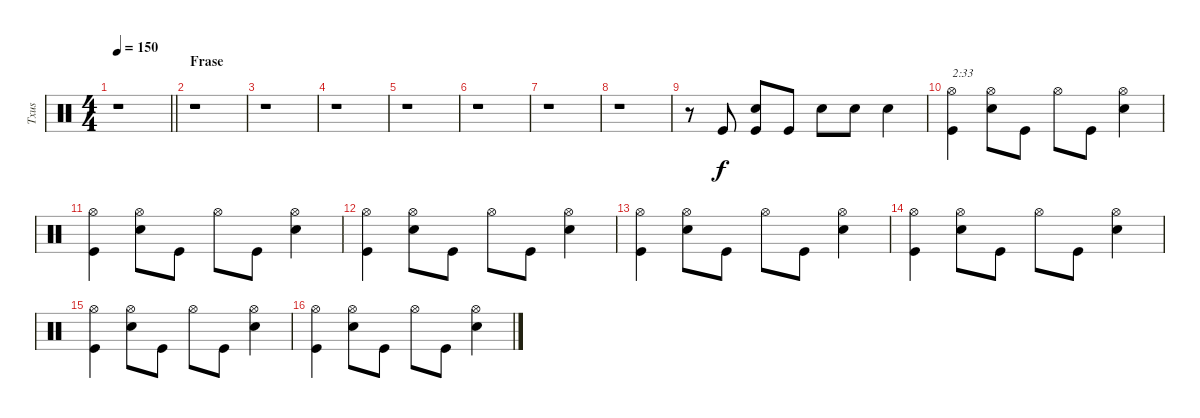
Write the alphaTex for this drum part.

\track ("Txus" "Txus") {instrument percussion}
\staff {score}
\articulation defaults
\ts (4 4)
\tempo 150
\clef neutral
\barLineRight lightlight
\ks c
r.1{dy f} |
\section ("" "Frase")
r.1 |
r.1 |
r.1 |
r.1 |
r.1 |
r.1 |
r.1 |
r.8 "Kick (hit)".8 ("Kick (hit)" "Snare (hit) 2").8 "Kick (hit)".8 "Snare (hit) 2".8 "Snare (hit) 2".8 "Snare (hit) 2".4 |
("Kick (hit)" "Hi-Hat (open)").4{txt "2:33"} ("Snare (hit) 2" "Hi-Hat (open)").8 "Kick (hit)".8 "Hi-Hat (open)".8 "Kick (hit)".8 ("Snare (hit) 2" "Hi-Hat (open)").4 |
("Kick (hit)" "Hi-Hat (open)").4 ("Snare (hit) 2" "Hi-Hat (open)").8 "Kick (hit)".8 "Hi-Hat (open)".8 "Kick (hit)".8 ("Snare (hit) 2" "Hi-Hat (open)").4 |
("Kick (hit)" "Hi-Hat (open)").4 ("Snare (hit) 2" "Hi-Hat (open)").8 "Kick (hit)".8 "Hi-Hat (open)".8 "Kick (hit)".8 ("Snare (hit) 2" "Hi-Hat (open)").4 |
("Kick (hit)" "Hi-Hat (open)").4 ("Snare (hit) 2" "Hi-Hat (open)").8 "Kick (hit)".8 "Hi-Hat (open)".8 "Kick (hit)".8 ("Snare (hit) 2" "Hi-Hat (open)").4 |
("Kick (hit)" "Hi-Hat (open)").4 ("Snare (hit) 2" "Hi-Hat (open)").8 "Kick (hit)".8 "Hi-Hat (open)".8 "Kick (hit)".8 ("Snare (hit) 2" "Hi-Hat (open)").4 |
("Kick (hit)" "Hi-Hat (open)").4 ("Snare (hit) 2" "Hi-Hat (open)").8 "Kick (hit)".8 "Hi-Hat (open)".8 "Kick (hit)".8 ("Snare (hit) 2" "Hi-Hat (open)").4 |
("Kick (hit)" "Hi-Hat (open)").4 ("Snare (hit) 2" "Hi-Hat (open)").8 "Kick (hit)".8 "Hi-Hat (open)".8 "Kick (hit)".8 ("Snare (hit) 2" "Hi-Hat (open)").4
